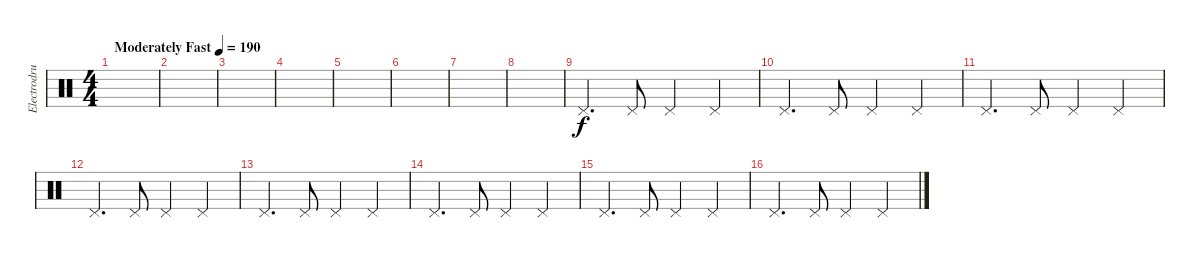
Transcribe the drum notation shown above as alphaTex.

\track ("Electrodrums1" "Electrodru") {instrument percussion}
\staff {score}
\articulation defaults
\ts (4 4)
\tempo (190 "Moderately Fast")
\clef neutral
\ks c
|
|
|
|
|
|
|
|
"Pedal Hi-Hat (hit)".4{d} "Pedal Hi-Hat (hit)".8 "Pedal Hi-Hat (hit)".4 "Pedal Hi-Hat (hit)".4 |
"Pedal Hi-Hat (hit)".4{d} "Pedal Hi-Hat (hit)".8 "Pedal Hi-Hat (hit)".4 "Pedal Hi-Hat (hit)".4 |
"Pedal Hi-Hat (hit)".4{d} "Pedal Hi-Hat (hit)".8 "Pedal Hi-Hat (hit)".4 "Pedal Hi-Hat (hit)".4 |
"Pedal Hi-Hat (hit)".4{d} "Pedal Hi-Hat (hit)".8 "Pedal Hi-Hat (hit)".4 "Pedal Hi-Hat (hit)".4 |
"Pedal Hi-Hat (hit)".4{d} "Pedal Hi-Hat (hit)".8 "Pedal Hi-Hat (hit)".4 "Pedal Hi-Hat (hit)".4 |
"Pedal Hi-Hat (hit)".4{d} "Pedal Hi-Hat (hit)".8 "Pedal Hi-Hat (hit)".4 "Pedal Hi-Hat (hit)".4 |
"Pedal Hi-Hat (hit)".4{d} "Pedal Hi-Hat (hit)".8 "Pedal Hi-Hat (hit)".4 "Pedal Hi-Hat (hit)".4 |
"Pedal Hi-Hat (hit)".4{d} "Pedal Hi-Hat (hit)".8 "Pedal Hi-Hat (hit)".4 "Pedal Hi-Hat (hit)".4
